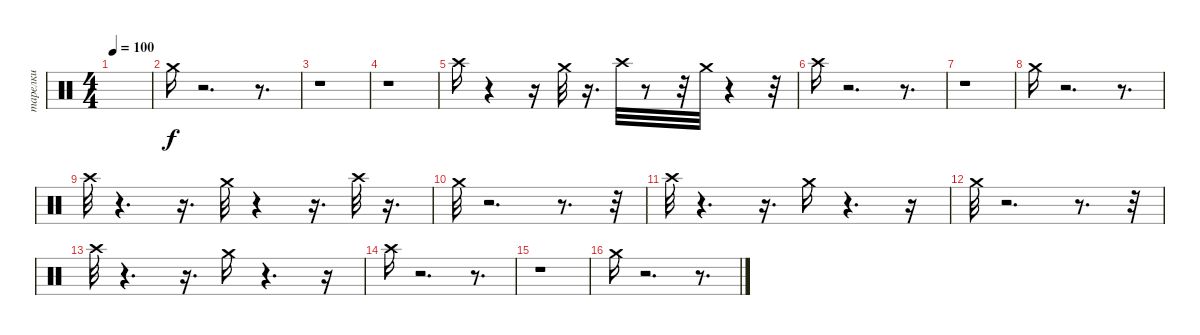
\track ("тарелки" "тарелки") {instrument percussion}
\staff {score}
\articulation defaults
\ts (4 4)
\tempo 100
\clef neutral
\ks c
|
"Crash medium (hit)".16 r.2{d} r.8{d} |
r.1 |
r.1 |
"Crash high (hit)".16 r.4 r.16 "Crash medium (hit)".32 r.16{d} "Crash high (hit)".32 r.8 r.32 "Crash medium (hit)".32 r.4 r.32 |
"Crash high (hit)".16 r.2{d} r.8{d} |
r.1 |
"Crash medium (hit)".16 r.2{d} r.8{d} |
"Crash high (hit)".32 r.4{d} r.16{d} "Crash medium (hit)".32 r.4 r.16{d} "Crash high (hit)".32 r.16{d} |
"Crash medium (hit)".32 r.2{d} r.8{d} r.32 |
"Crash high (hit)".32 r.4{d} r.16{d} "Crash medium (hit)".16 r.4{d} r.16 |
"Crash medium (hit)".32 r.2{d} r.8{d} r.32 |
"Crash high (hit)".32 r.4{d} r.16{d} "Crash medium (hit)".16 r.4{d} r.16 |
"Crash high (hit)".16 r.2{d} r.8{d} |
r.1 |
"Crash medium (hit)".16 r.2{d} r.8{d}
